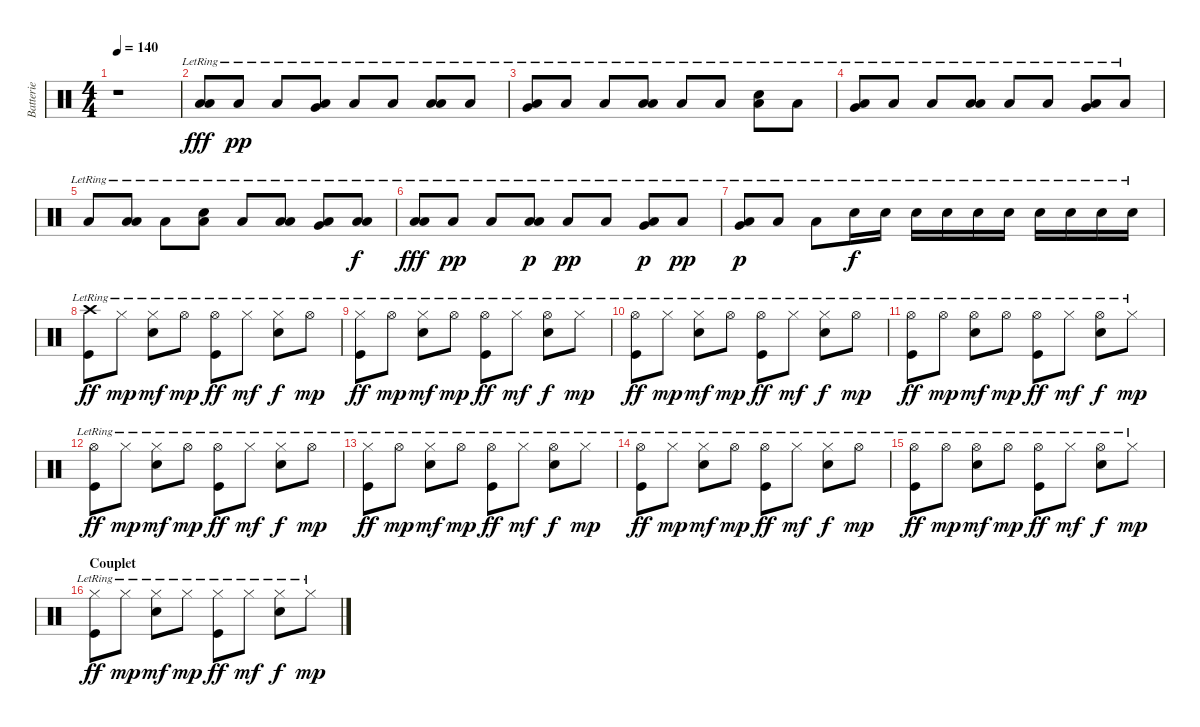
\track ("Batterie" "Batterie") {instrument percussion}
\staff {score}
\articulation defaults
\ts (4 4)
\tempo 140
\clef neutral
\ks c
r.1{dy fff} |
("Low Floor Tom (hit)"{lr} "Low Floor Tom (hit)"{lr}).8 "Low Floor Tom (hit)"{lr}.8{dy pp} "Low Floor Tom (hit)"{lr}.8 ("Very Low Tom (hit)"{lr} "Low Floor Tom (hit)"{lr}).8 "Low Floor Tom (hit)"{lr}.8 "Low Floor Tom (hit)"{lr}.8 ("Low Tom (hit)"{lr} "Low Floor Tom (hit)"{lr}).8 "Low Floor Tom (hit)"{lr}.8 |
("Very Low Tom (hit)"{lr} "Low Floor Tom (hit)"{lr}).8 "Low Floor Tom (hit)"{lr}.8 "Low Floor Tom (hit)"{lr}.8 ("Low Tom (hit)"{lr} "Low Floor Tom (hit)"{lr}).8 "Low Floor Tom (hit)"{lr}.8 "Low Floor Tom (hit)"{lr}.8 ("Snare (hit) 2"{lr} "Low Floor Tom (hit)"{lr}).8 "Low Floor Tom (hit)"{lr}.8 |
("Very Low Tom (hit)"{lr} "Low Floor Tom (hit)"{lr}).8 "Low Floor Tom (hit)"{lr}.8 "Low Floor Tom (hit)"{lr}.8 ("Low Tom (hit)"{lr} "Low Floor Tom (hit)"{lr}).8 "Low Floor Tom (hit)"{lr}.8 "Low Floor Tom (hit)"{lr}.8 ("Very Low Tom (hit)"{lr} "Low Floor Tom (hit)"{lr}).8 "Low Floor Tom (hit)"{lr}.8 |
"Low Floor Tom (hit)"{lr}.8 ("Low Tom (hit)"{lr} "Low Floor Tom (hit)"{lr}).8 "Low Floor Tom (hit)"{lr}.8 ("Snare (hit) 2"{lr} "Low Floor Tom (hit)"{lr}).8 "Low Floor Tom (hit)"{lr}.8 ("Low Tom (hit)"{lr} "Low Floor Tom (hit)"{lr}).8 ("Very Low Tom (hit)"{lr} "Low Floor Tom (hit)"{lr}).8 ("Low Floor Tom (hit)"{lr} "Low Floor Tom (hit)"{lr}).8{dy f} |
("Low Floor Tom (hit)"{lr} "Low Floor Tom (hit)"{lr}).8{dy fff} "Low Floor Tom (hit)"{lr}.8{dy pp} "Low Floor Tom (hit)"{lr}.8 ("Low Tom (hit)"{lr} "Low Floor Tom (hit)"{lr}).8{dy p} "Low Floor Tom (hit)"{lr}.8{dy pp} "Low Floor Tom (hit)"{lr}.8 ("Very Low Tom (hit)"{lr} "Low Floor Tom (hit)"{lr}).8{dy p} "Low Floor Tom (hit)"{lr}.8{dy pp} |
("Very Low Tom (hit)"{lr} "Low Floor Tom (hit)"{lr}).8{dy p} "Low Floor Tom (hit)"{lr}.8 "Low Floor Tom (hit)"{lr}.8 "Snare (hit) 2"{lr}.16{dy f} "Snare (hit) 2"{lr}.16 "Snare (hit) 2"{lr}.16 "Snare (hit) 2"{lr}.16 "Snare (hit) 2"{lr}.16 "Snare (hit) 2"{lr}.16 "Snare (hit) 2"{lr}.16 "Snare (hit) 2"{lr}.16 "Snare (hit) 2"{lr}.16 "Snare (hit) 2"{lr}.16 |
("Crash high (hit)"{lr} "Kick (hit)"{lr}).8{dy ff} "Hi-Hat (closed)"{lr}.8{dy mp} ("Hi-Hat (closed)"{lr} "Snare (hit) 2"{lr}).8{dy mf} "Hi-Hat (open)"{lr}.8{dy mp} ("Hi-Hat (open)"{lr} "Kick (hit)"{lr}).8{dy ff} "Hi-Hat (closed)"{lr}.8{dy mf} ("Hi-Hat (closed)"{lr} "Snare (hit) 2"{lr}).8{dy f} "Hi-Hat (open)"{lr}.8{dy mp} |
("Hi-Hat (closed)"{lr} "Kick (hit)"{lr}).8{dy ff} "Hi-Hat (open)"{lr}.8{dy mp} ("Hi-Hat (closed)"{lr} "Snare (hit) 2"{lr}).8{dy mf} "Hi-Hat (open)"{lr}.8{dy mp} ("Hi-Hat (open)"{lr} "Kick (hit)"{lr}).8{dy ff} "Hi-Hat (closed)"{lr}.8{dy mf} ("Hi-Hat (open)"{lr} "Snare (hit) 2"{lr}).8{dy f} "Hi-Hat (closed)"{lr}.8{dy mp} |
("Hi-Hat (open)" "Kick (hit)"{lr}).8{dy ff} "Hi-Hat (closed)"{lr}.8{dy mp} ("Hi-Hat (closed)"{lr} "Snare (hit) 2"{lr}).8{dy mf} "Hi-Hat (open)"{lr}.8{dy mp} ("Hi-Hat (open)"{lr} "Kick (hit)"{lr}).8{dy ff} "Hi-Hat (closed)"{lr}.8{dy mf} ("Hi-Hat (closed)"{lr} "Snare (hit) 2"{lr}).8{dy f} "Hi-Hat (open)"{lr}.8{dy mp} |
("Hi-Hat (open)"{lr} "Kick (hit)"{lr}).8{dy ff} "Hi-Hat (open)"{lr}.8{dy mp} ("Hi-Hat (open)"{lr} "Snare (hit) 2"{lr}).8{dy mf} "Hi-Hat (open)"{lr}.8{dy mp} ("Hi-Hat (open)"{lr} "Kick (hit)"{lr}).8{dy ff} "Hi-Hat (closed)"{lr}.8{dy mf} ("Hi-Hat (open)"{lr} "Snare (hit) 2"{lr}).8{dy f} "Hi-Hat (closed)"{lr}.8{dy mp} |
("Hi-Hat (open)" "Kick (hit)"{lr}).8{dy ff} "Hi-Hat (closed)"{lr}.8{dy mp} ("Hi-Hat (closed)"{lr} "Snare (hit) 2"{lr}).8{dy mf} "Hi-Hat (open)"{lr}.8{dy mp} ("Hi-Hat (open)"{lr} "Kick (hit)"{lr}).8{dy ff} "Hi-Hat (closed)"{lr}.8{dy mf} ("Hi-Hat (closed)"{lr} "Snare (hit) 2"{lr}).8{dy f} "Hi-Hat (open)"{lr}.8{dy mp} |
("Hi-Hat (closed)"{lr} "Kick (hit)"{lr}).8{dy ff} "Hi-Hat (open)"{lr}.8{dy mp} ("Hi-Hat (closed)"{lr} "Snare (hit) 2"{lr}).8{dy mf} "Hi-Hat (open)"{lr}.8{dy mp} ("Hi-Hat (open)"{lr} "Kick (hit)"{lr}).8{dy ff} "Hi-Hat (closed)"{lr}.8{dy mf} ("Hi-Hat (open)"{lr} "Snare (hit) 2"{lr}).8{dy f} "Hi-Hat (closed)"{lr}.8{dy mp} |
("Hi-Hat (open)" "Kick (hit)"{lr}).8{dy ff} "Hi-Hat (closed)"{lr}.8{dy mp} ("Hi-Hat (closed)"{lr} "Snare (hit) 2"{lr}).8{dy mf} "Hi-Hat (open)"{lr}.8{dy mp} ("Hi-Hat (open)"{lr} "Kick (hit)"{lr}).8{dy ff} "Hi-Hat (closed)"{lr}.8{dy mf} ("Hi-Hat (closed)"{lr} "Snare (hit) 2"{lr}).8{dy f} "Hi-Hat (open)"{lr}.8{dy mp} |
("Hi-Hat (open)"{lr} "Kick (hit)"{lr}).8{dy ff} "Hi-Hat (open)"{lr}.8{dy mp} ("Hi-Hat (open)"{lr} "Snare (hit) 2"{lr}).8{dy mf} "Hi-Hat (open)"{lr}.8{dy mp} ("Hi-Hat (open)"{lr} "Kick (hit)"{lr}).8{dy ff} "Hi-Hat (closed)"{lr}.8{dy mf} ("Hi-Hat (open)"{lr} "Snare (hit) 2"{lr}).8{dy f} "Hi-Hat (closed)"{lr}.8{dy mp} |
\section ("" "Couplet")
("Hi-Hat (closed)"{lr} "Kick (hit)"{lr}).8{dy ff} "Hi-Hat (closed)"{lr}.8{dy mp} ("Hi-Hat (closed)"{lr} "Snare (hit) 2"{lr}).8{dy mf} "Hi-Hat (closed)"{lr}.8{dy mp} ("Hi-Hat (closed)"{lr} "Kick (hit)"{lr}).8{dy ff} "Hi-Hat (closed)"{lr}.8{dy mf} ("Hi-Hat (closed)"{lr} "Snare (hit) 2"{lr}).8{dy f} "Hi-Hat (closed)"{lr}.8{dy mp}
